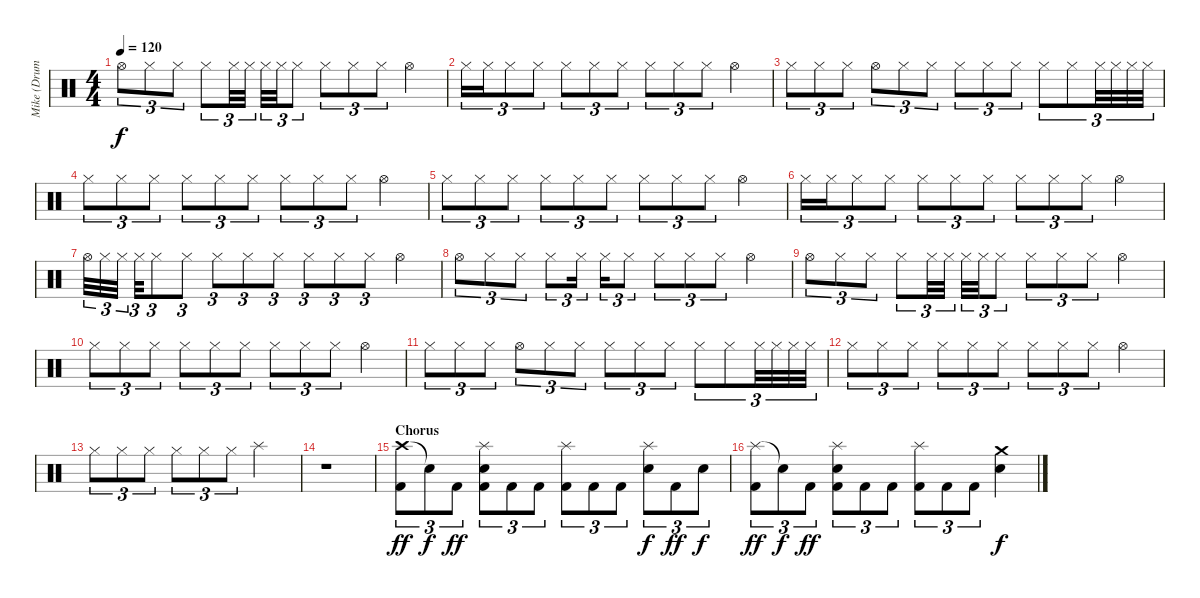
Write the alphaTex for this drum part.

\track ("Mike (Drums)" "Mike (Drum") {instrument percussion}
\staff {score}
\articulation defaults
\ts (4 4)
\tempo 120
\clef neutral
\ks c "Hi-Hat (open)".8{tu (3 2) dy f} "Hi-Hat (closed)".8{tu (3 2)} "Hi-Hat (closed)".8{tu (3 2)} "Hi-Hat (closed)".8{tu (3 2)} "Hi-Hat (closed)".32{tu (3 2)} "Hi-Hat (closed)".32{tu (3 2)} "Hi-Hat (closed)".32{tu (3 2)} "Hi-Hat (closed)".32{tu (3 2)} "Hi-Hat (closed)".8{tu (3 2)} "Hi-Hat (closed)".8{tu (3 2)} "Hi-Hat (closed)".8{tu (3 2)} "Hi-Hat (closed)".8{tu (3 2)} "Hi-Hat (open)".4
|
"Hi-Hat (closed)".16{tu (3 2)} "Hi-Hat (closed)".16{tu (3 2)} "Hi-Hat (closed)".8{tu (3 2)} "Hi-Hat (closed)".8{tu (3 2)} "Hi-Hat (closed)".8{tu (3 2)} "Hi-Hat (closed)".8{tu (3 2)} "Hi-Hat (closed)".8{tu (3 2)} "Hi-Hat (closed)".8{tu (3 2)} "Hi-Hat (closed)".8{tu (3 2)} "Hi-Hat (closed)".8{tu (3 2)} "Hi-Hat (open)".4 |
"Hi-Hat (closed)".8{tu (3 2)} "Hi-Hat (closed)".8{tu (3 2)} "Hi-Hat (closed)".8{tu (3 2)} "Hi-Hat (open)".8{tu (3 2)} "Hi-Hat (closed)".8{tu (3 2)} "Hi-Hat (closed)".8{tu (3 2)} "Hi-Hat (closed)".8{tu (3 2)} "Hi-Hat (closed)".8{tu (3 2)} "Hi-Hat (closed)".8{tu (3 2)} "Hi-Hat (closed)".8{tu (3 2)} "Hi-Hat (closed)".8{tu (3 2)} "Hi-Hat (closed)".32{tu (3 2)} "Hi-Hat (closed)".32{tu (3 2)} "Hi-Hat (closed)".32{tu (3 2)} "Hi-Hat (closed)".32{tu (3 2)} |
"Hi-Hat (closed)".8{tu (3 2)} "Hi-Hat (closed)".8{tu (3 2)} "Hi-Hat (closed)".8{tu (3 2)} "Hi-Hat (closed)".8{tu (3 2)} "Hi-Hat (closed)".8{tu (3 2)} "Hi-Hat (closed)".8{tu (3 2)} "Hi-Hat (closed)".8{tu (3 2)} "Hi-Hat (closed)".8{tu (3 2)} "Hi-Hat (closed)".8{tu (3 2)} "Hi-Hat (open)".4 |
"Hi-Hat (closed)".8{tu (3 2)} "Hi-Hat (closed)".8{tu (3 2)} "Hi-Hat (closed)".8{tu (3 2)} "Hi-Hat (closed)".8{tu (3 2)} "Hi-Hat (closed)".8{tu (3 2)} "Hi-Hat (closed)".8{tu (3 2)} "Hi-Hat (closed)".8{tu (3 2)} "Hi-Hat (closed)".8{tu (3 2)} "Hi-Hat (closed)".8{tu (3 2)} "Hi-Hat (open)".4 |
"Hi-Hat (closed)".16{tu (3 2)} "Hi-Hat (closed)".16{tu (3 2)} "Hi-Hat (closed)".8{tu (3 2)} "Hi-Hat (closed)".8{tu (3 2)} "Hi-Hat (closed)".8{tu (3 2)} "Hi-Hat (closed)".8{tu (3 2)} "Hi-Hat (closed)".8{tu (3 2)} "Hi-Hat (closed)".8{tu (3 2)} "Hi-Hat (closed)".8{tu (3 2)} "Hi-Hat (closed)".8{tu (3 2)} "Hi-Hat (open)".4 |
"Hi-Hat (open)".32{tu (3 2)} "Hi-Hat (closed)".32{tu (3 2)} "Hi-Hat (closed)".32{tu (3 2)} "Hi-Hat (closed)".32{tu (3 2)} "Hi-Hat (closed)".8{tu (3 2)} "Hi-Hat (closed)".8{tu (3 2)} "Hi-Hat (closed)".8{tu (3 2)} "Hi-Hat (closed)".8{tu (3 2)} "Hi-Hat (closed)".8{tu (3 2)} "Hi-Hat (closed)".8{tu (3 2)} "Hi-Hat (closed)".8{tu (3 2)} "Hi-Hat (closed)".8{tu (3 2)} "Hi-Hat (open)".4 |
"Hi-Hat (open)".8{tu (3 2)} "Hi-Hat (closed)".8{tu (3 2)} "Hi-Hat (closed)".8{tu (3 2)} "Hi-Hat (closed)".8{tu (3 2)} "Hi-Hat (closed)".16{tu (3 2)} "Hi-Hat (closed)".16{tu (3 2)} "Hi-Hat (closed)".8{tu (3 2)} "Hi-Hat (closed)".8{tu (3 2)} "Hi-Hat (closed)".8{tu (3 2)} "Hi-Hat (closed)".8{tu (3 2)} "Hi-Hat (open)".4 |
"Hi-Hat (open)".8{tu (3 2)} "Hi-Hat (closed)".8{tu (3 2)} "Hi-Hat (closed)".8{tu (3 2)} "Hi-Hat (closed)".8{tu (3 2)} "Hi-Hat (closed)".32{tu (3 2)} "Hi-Hat (closed)".32{tu (3 2)} "Hi-Hat (closed)".32{tu (3 2)} "Hi-Hat (closed)".32{tu (3 2)} "Hi-Hat (closed)".8{tu (3 2)} "Hi-Hat (closed)".8{tu (3 2)} "Hi-Hat (closed)".8{tu (3 2)} "Hi-Hat (closed)".8{tu (3 2)} "Hi-Hat (open)".4 |
"Hi-Hat (closed)".8{tu (3 2)} "Hi-Hat (closed)".8{tu (3 2)} "Hi-Hat (closed)".8{tu (3 2)} "Hi-Hat (closed)".8{tu (3 2)} "Hi-Hat (closed)".8{tu (3 2)} "Hi-Hat (closed)".8{tu (3 2)} "Hi-Hat (closed)".8{tu (3 2)} "Hi-Hat (closed)".8{tu (3 2)} "Hi-Hat (closed)".8{tu (3 2)} "Hi-Hat (open)".4 |
"Hi-Hat (closed)".8{tu (3 2)} "Hi-Hat (closed)".8{tu (3 2)} "Hi-Hat (closed)".8{tu (3 2)} "Hi-Hat (open)".8{tu (3 2)} "Hi-Hat (closed)".8{tu (3 2)} "Hi-Hat (closed)".8{tu (3 2)} "Hi-Hat (closed)".8{tu (3 2)} "Hi-Hat (closed)".8{tu (3 2)} "Hi-Hat (closed)".8{tu (3 2)} "Hi-Hat (closed)".8{tu (3 2)} "Hi-Hat (closed)".8{tu (3 2)} "Hi-Hat (closed)".32{tu (3 2)} "Hi-Hat (closed)".32{tu (3 2)} "Hi-Hat (closed)".32{tu (3 2)} "Hi-Hat (closed)".32{tu (3 2)} |
"Hi-Hat (closed)".8{tu (3 2)} "Hi-Hat (closed)".8{tu (3 2)} "Hi-Hat (closed)".8{tu (3 2)} "Hi-Hat (closed)".8{tu (3 2)} "Hi-Hat (closed)".8{tu (3 2)} "Hi-Hat (closed)".8{tu (3 2)} "Hi-Hat (closed)".8{tu (3 2)} "Hi-Hat (closed)".8{tu (3 2)} "Hi-Hat (closed)".8{tu (3 2)} "Hi-Hat (open)".4 |
"Hi-Hat (closed)".8{tu (3 2)} "Hi-Hat (closed)".8{tu (3 2)} "Hi-Hat (closed)".8{tu (3 2)} "Hi-Hat (closed)".8{tu (3 2)} "Hi-Hat (closed)".8{tu (3 2)} "Hi-Hat (closed)".8{tu (3 2)} "Splash (hit)".2 |
r.1 |
\section ("" "Chorus")
("Crash high (hit)" "Kick (hit) 2").8{tu (3 2) dy ff} "Snare (hit)"{t}.8{tu (3 2) dy f} "Kick (hit) 2".8{tu (3 2) dy ff} ("Splash (hit)" "Electric Snare (hit)" "Kick (hit) 2").8{tu (3 2)} "Kick (hit) 2".8{tu (3 2)} "Kick (hit) 2".8{tu (3 2)} ("Splash (hit)" "Kick (hit) 2").8{tu (3 2)} "Kick (hit) 2".8{tu (3 2)} "Kick (hit) 2".8{tu (3 2)} ("Splash (hit)" "Electric Snare (hit)").8{tu (3 2) dy f} "Kick (hit) 2".8{tu (3 2) dy ff} "Snare (hit) 2".8{tu (3 2) dy f} |
("Splash (hit)" "Kick (hit) 2").8{tu (3 2) dy ff} "Snare (hit)"{t}.8{tu (3 2) dy f} "Kick (hit) 2".8{tu (3 2) dy ff} ("Splash (hit)" "Electric Snare (hit)" "Kick (hit) 2").8{tu (3 2)} "Kick (hit) 2".8{tu (3 2)} "Kick (hit) 2".8{tu (3 2)} ("Splash (hit)" "Kick (hit) 2").8{tu (3 2)} "Kick (hit) 2".8{tu (3 2)} "Kick (hit) 2".8{tu (3 2)} ("Crash medium (hit)" "Electric Snare (hit)").4{dy f}
